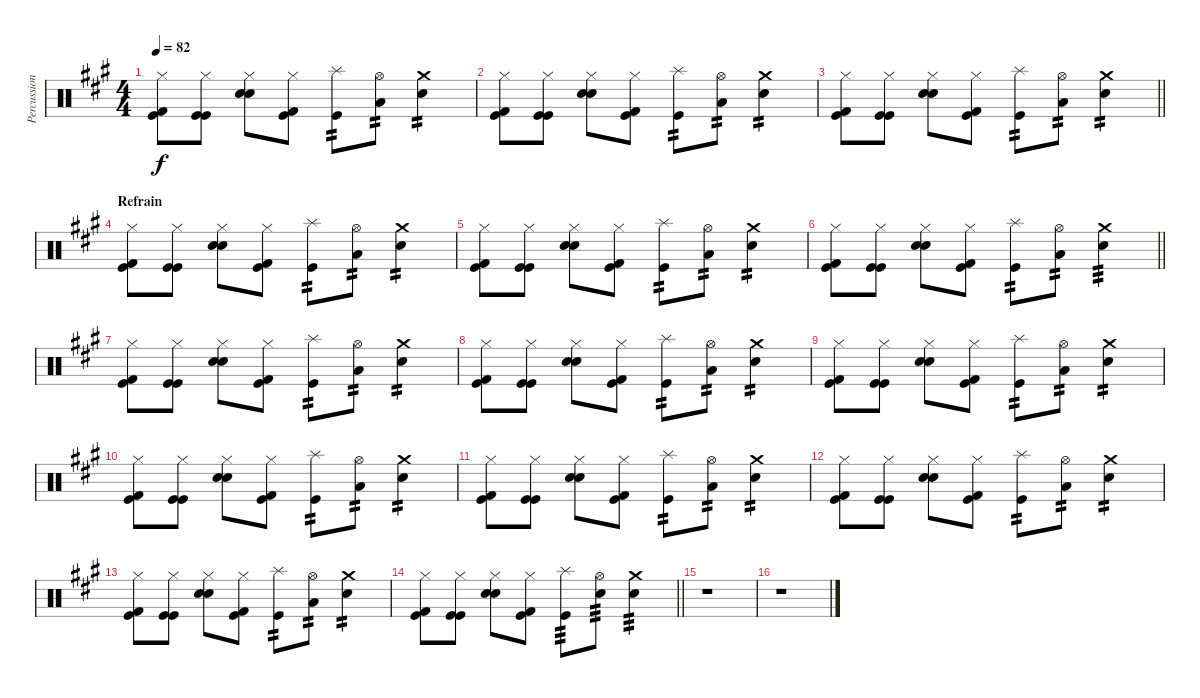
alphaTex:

\track ("Percussion" "Percussion") {instrument percussion}
\staff {score}
\articulation defaults
\ts (4 4)
\tempo 82
\clef neutral
\ks a
("Hi-Hat (closed)" "Kick (hit)" "Kick (hit) 2").8{dy f} ("Hi-Hat (closed)" "Kick (hit)" "Kick (hit)").8 ("Hi-Hat (closed)" "Electric Snare (hit)" "Snare (hit) 2").8 ("Hi-Hat (closed)" "Kick (hit)" "Kick (hit) 2").8 ("Splash (hit)" "Kick (hit)").8{tp 2} ("Hi-Hat (open)" "Low Floor Tom (hit)").8{tp 2} ("Crash medium (hit)" "Electric Snare (hit)").4{tp 2} |
("Hi-Hat (closed)" "Kick (hit)" "Kick (hit) 2").8 ("Hi-Hat (closed)" "Kick (hit)" "Kick (hit)").8 ("Hi-Hat (closed)" "Electric Snare (hit)" "Snare (hit) 2").8 ("Hi-Hat (closed)" "Kick (hit)" "Kick (hit) 2").8 ("Splash (hit)" "Kick (hit)").8{tp 2} ("Hi-Hat (open)" "Low Floor Tom (hit)").8{tp 2} ("Crash medium (hit)" "Electric Snare (hit)").4{tp 2} |
\barLineRight lightlight
("Hi-Hat (closed)" "Kick (hit)" "Kick (hit) 2").8 ("Hi-Hat (closed)" "Kick (hit)" "Kick (hit)").8 ("Hi-Hat (closed)" "Electric Snare (hit)" "Snare (hit) 2").8 ("Hi-Hat (closed)" "Kick (hit)" "Kick (hit) 2").8 ("Splash (hit)" "Kick (hit)").8{tp 2} ("Hi-Hat (open)" "Low Floor Tom (hit)").8{tp 2} ("Crash medium (hit)" "Electric Snare (hit)").4{tp 2} |
\section ("" "Refrain")
("Hi-Hat (closed)" "Kick (hit)" "Kick (hit) 2").8 ("Hi-Hat (closed)" "Kick (hit)" "Kick (hit)").8 ("Hi-Hat (closed)" "Electric Snare (hit)" "Snare (hit) 2").8 ("Hi-Hat (closed)" "Kick (hit)" "Kick (hit) 2").8 ("Splash (hit)" "Kick (hit)").8{tp 2} ("Hi-Hat (open)" "Low Floor Tom (hit)").8{tp 2} ("Crash medium (hit)" "Electric Snare (hit)").4{tp 2} |
("Hi-Hat (closed)" "Kick (hit)" "Kick (hit) 2").8 ("Hi-Hat (closed)" "Kick (hit)" "Kick (hit)").8 ("Hi-Hat (closed)" "Electric Snare (hit)" "Snare (hit) 2").8 ("Hi-Hat (closed)" "Kick (hit)" "Kick (hit) 2").8 ("Splash (hit)" "Kick (hit)").8{tp 2} ("Hi-Hat (open)" "Low Floor Tom (hit)").8{tp 2} ("Crash medium (hit)" "Electric Snare (hit)").4{tp 2} |
\barLineRight lightlight
("Hi-Hat (closed)" "Kick (hit)" "Kick (hit) 2").8 ("Hi-Hat (closed)" "Kick (hit)" "Kick (hit)").8 ("Hi-Hat (closed)" "Electric Snare (hit)" "Snare (hit) 2").8 ("Hi-Hat (closed)" "Kick (hit)" "Kick (hit) 2").8 ("Splash (hit)" "Kick (hit)").8{tp 2} ("Hi-Hat (open)" "Low Floor Tom (hit)").8{tp 2} ("Crash medium (hit)" "Electric Snare (hit)").4{tp 3} |
("Hi-Hat (closed)" "Kick (hit)" "Kick (hit) 2").8 ("Hi-Hat (closed)" "Kick (hit)" "Kick (hit)").8 ("Hi-Hat (closed)" "Electric Snare (hit)" "Snare (hit) 2").8 ("Hi-Hat (closed)" "Kick (hit)" "Kick (hit) 2").8 ("Splash (hit)" "Kick (hit)").8{tp 2} ("Hi-Hat (open)" "Low Floor Tom (hit)").8{tp 2} ("Crash medium (hit)" "Electric Snare (hit)").4{tp 2} |
("Hi-Hat (closed)" "Kick (hit)" "Kick (hit) 2").8 ("Hi-Hat (closed)" "Kick (hit)" "Kick (hit)").8 ("Hi-Hat (closed)" "Electric Snare (hit)" "Snare (hit) 2").8 ("Hi-Hat (closed)" "Kick (hit)" "Kick (hit) 2").8 ("Splash (hit)" "Kick (hit)").8{tp 2} ("Hi-Hat (open)" "Low Floor Tom (hit)").8{tp 2} ("Crash medium (hit)" "Electric Snare (hit)").4{tp 2} |
("Hi-Hat (closed)" "Kick (hit)" "Kick (hit) 2").8 ("Hi-Hat (closed)" "Kick (hit)" "Kick (hit)").8 ("Hi-Hat (closed)" "Electric Snare (hit)" "Snare (hit) 2").8 ("Hi-Hat (closed)" "Kick (hit)" "Kick (hit) 2").8 ("Splash (hit)" "Kick (hit)").8{tp 2} ("Hi-Hat (open)" "Low Floor Tom (hit)").8{tp 2} ("Crash medium (hit)" "Electric Snare (hit)").4{tp 2} |
("Hi-Hat (closed)" "Kick (hit)" "Kick (hit) 2").8 ("Hi-Hat (closed)" "Kick (hit)" "Kick (hit)").8 ("Hi-Hat (closed)" "Electric Snare (hit)" "Snare (hit) 2").8 ("Hi-Hat (closed)" "Kick (hit)" "Kick (hit) 2").8 ("Splash (hit)" "Kick (hit)").8{tp 2} ("Hi-Hat (open)" "Low Floor Tom (hit)").8{tp 2} ("Crash medium (hit)" "Electric Snare (hit)").4{tp 2} |
("Hi-Hat (closed)" "Kick (hit)" "Kick (hit) 2").8 ("Hi-Hat (closed)" "Kick (hit)" "Kick (hit)").8 ("Hi-Hat (closed)" "Electric Snare (hit)" "Snare (hit) 2").8 ("Hi-Hat (closed)" "Kick (hit)" "Kick (hit) 2").8 ("Splash (hit)" "Kick (hit)").8{tp 2} ("Hi-Hat (open)" "Low Floor Tom (hit)").8{tp 2} ("Crash medium (hit)" "Electric Snare (hit)").4{tp 2} |
("Hi-Hat (closed)" "Kick (hit)" "Kick (hit) 2").8 ("Hi-Hat (closed)" "Kick (hit)" "Kick (hit)").8 ("Hi-Hat (closed)" "Electric Snare (hit)" "Snare (hit) 2").8 ("Hi-Hat (closed)" "Kick (hit)" "Kick (hit) 2").8 ("Splash (hit)" "Kick (hit)").8{tp 2} ("Hi-Hat (open)" "Low Floor Tom (hit)").8{tp 2} ("Crash medium (hit)" "Electric Snare (hit)").4{tp 2} |
("Hi-Hat (closed)" "Kick (hit)" "Kick (hit) 2").8 ("Hi-Hat (closed)" "Kick (hit)" "Kick (hit)").8 ("Hi-Hat (closed)" "Electric Snare (hit)" "Snare (hit) 2").8 ("Hi-Hat (closed)" "Kick (hit)" "Kick (hit) 2").8 ("Splash (hit)" "Kick (hit)").8{tp 2} ("Hi-Hat (open)" "Low Floor Tom (hit)").8{tp 2} ("Crash medium (hit)" "Electric Snare (hit)").4{tp 2} |
\barLineRight lightlight
("Hi-Hat (closed)" "Kick (hit)" "Kick (hit) 2").8 ("Hi-Hat (closed)" "Kick (hit)" "Kick (hit)").8 ("Hi-Hat (closed)" "Electric Snare (hit)" "Snare (hit) 2").8 ("Hi-Hat (closed)" "Kick (hit)" "Kick (hit) 2").8 ("Splash (hit)" "Kick (hit)").8{tp 3} ("Hi-Hat (open)" "Electric Snare (hit)").8{tp 3} ("Crash medium (hit)" "Electric Snare (hit)").4{tp 3} |
r.1 |
r.1
